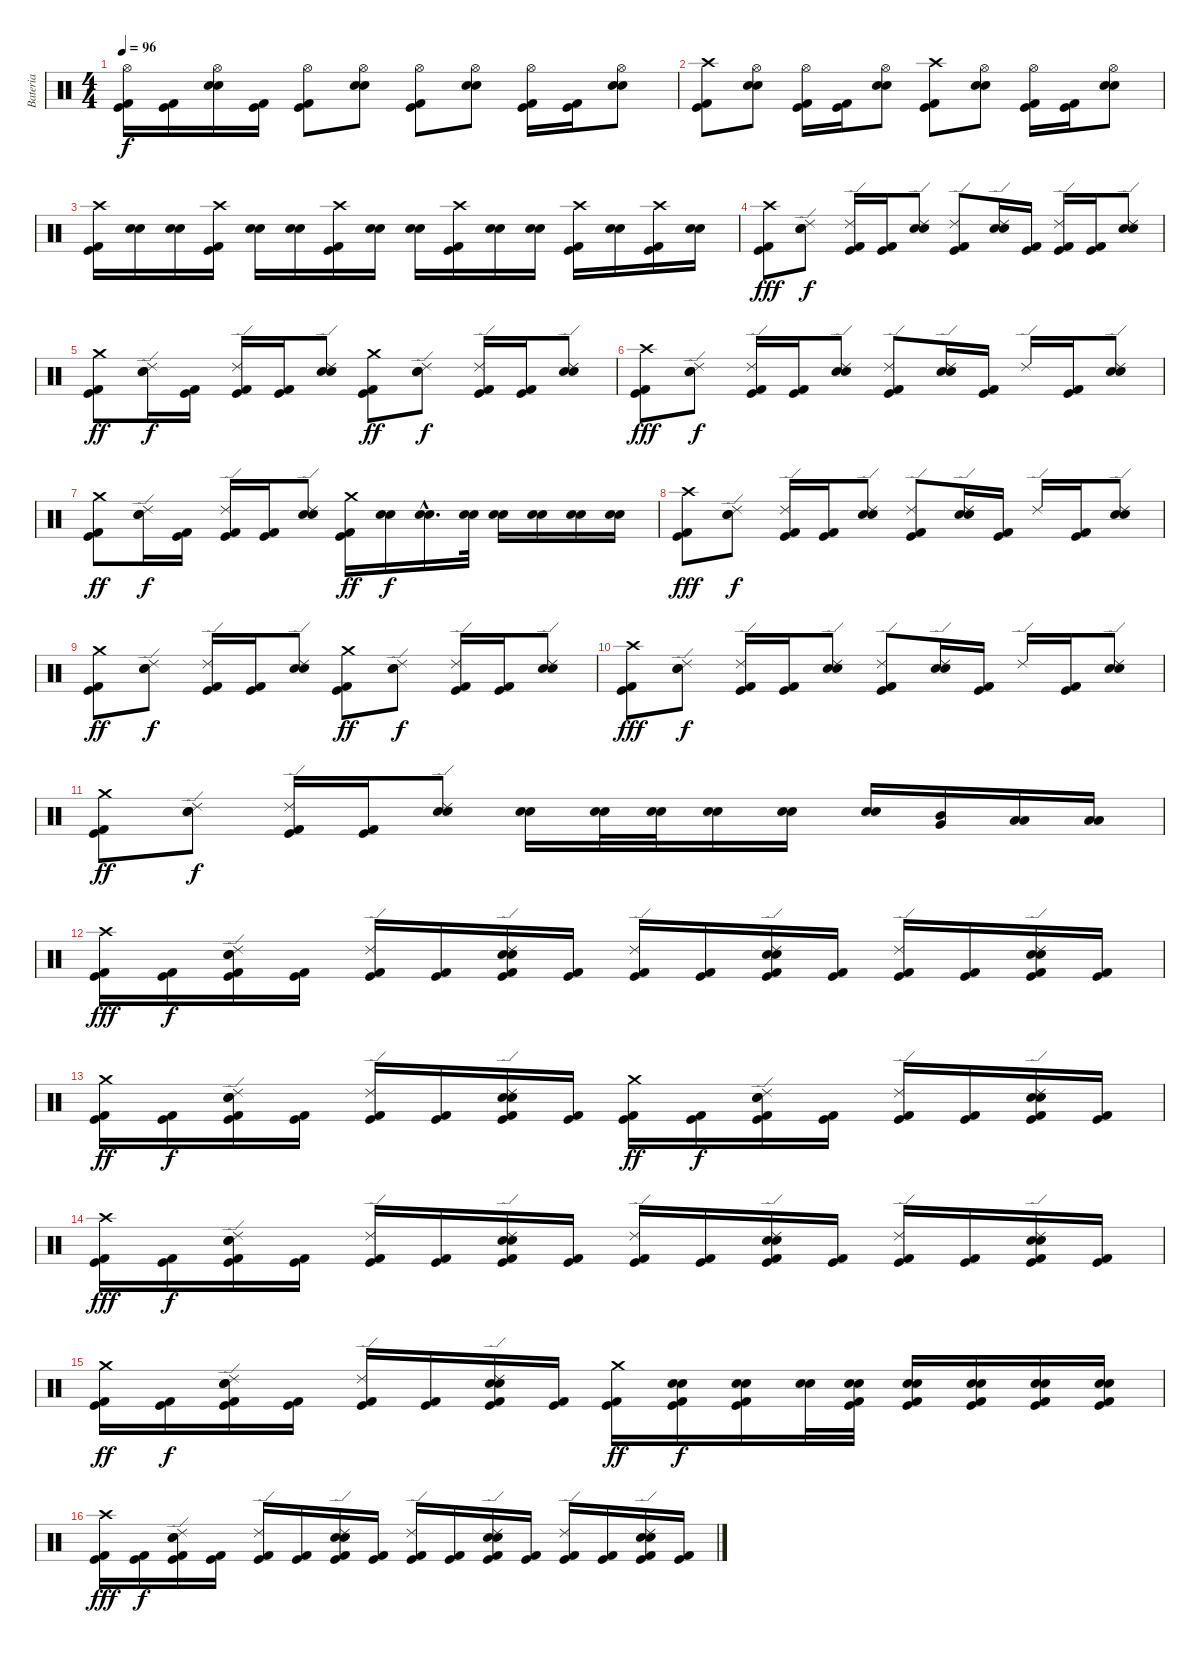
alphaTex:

\track ("Bateria" "Bateria") {instrument percussion}
\staff {score}
\articulation defaults
\ts (4 4)
\tempo 96
\clef neutral
\ks c
("Hi-Hat (open)" "Kick (hit) 2" "Kick (hit)").16{dy f} ("Kick (hit) 2" "Kick (hit)").16 ("Hi-Hat (open)" "Electric Snare (hit)" "Snare (hit) 2").16 ("Kick (hit) 2" "Kick (hit)").16 ("Hi-Hat (open)" "Kick (hit) 2" "Kick (hit)").8 ("Hi-Hat (open)" "Electric Snare (hit)" "Snare (hit) 2").8 ("Hi-Hat (open)" "Kick (hit) 2" "Kick (hit)").8 ("Hi-Hat (open)" "Electric Snare (hit)" "Snare (hit) 2").8 ("Hi-Hat (open)" "Kick (hit) 2" "Kick (hit)").16 ("Kick (hit) 2" "Kick (hit)").16 ("Hi-Hat (open)" "Electric Snare (hit)" "Snare (hit) 2").8 |
("Crash high (hit)" "Kick (hit) 2" "Kick (hit)").8 ("Hi-Hat (open)" "Electric Snare (hit)" "Snare (hit) 2").8 ("Hi-Hat (open)" "Kick (hit) 2" "Kick (hit)").16 ("Kick (hit) 2" "Kick (hit)").16 ("Hi-Hat (open)" "Electric Snare (hit)" "Snare (hit) 2").8 ("Crash high (hit)" "Kick (hit) 2" "Kick (hit)").8 ("Hi-Hat (open)" "Electric Snare (hit)" "Snare (hit) 2").8 ("Hi-Hat (open)" "Kick (hit) 2" "Kick (hit)").16 ("Kick (hit) 2" "Kick (hit)").16 ("Hi-Hat (open)" "Electric Snare (hit)" "Snare (hit) 2").8 |
("Crash high (hit)" "Kick (hit) 2" "Kick (hit)").16 ("Electric Snare (hit)" "Snare (hit) 2").16 ("Electric Snare (hit)" "Snare (hit) 2").16 ("Crash high (hit)" "Kick (hit) 2" "Kick (hit)").16 ("Electric Snare (hit)" "Snare (hit) 2").16 ("Electric Snare (hit)" "Snare (hit) 2").16 ("Crash high (hit)" "Kick (hit) 2" "Kick (hit)").16 ("Electric Snare (hit)" "Snare (hit) 2").16 ("Electric Snare (hit)" "Snare (hit) 2").16 ("Crash high (hit)" "Kick (hit) 2" "Kick (hit)").16 ("Electric Snare (hit)" "Snare (hit) 2").16 ("Electric Snare (hit)" "Snare (hit) 2").16 ("Crash high (hit)" "Kick (hit) 2" "Kick (hit)").16 ("Electric Snare (hit)" "Snare (hit) 2").16 ("Crash high (hit)" "Kick (hit) 2" "Kick (hit)").16 ("Electric Snare (hit)" "Snare (hit) 2").16 |
("Crash high (hit)" "Kick (hit) 2" "Kick (hit)").8{dy fff} ("Ride (edge) 2" "Electric Snare (hit)" "Snare (hit) 2").8{dy f} ("Ride (edge) 2" "Kick (hit) 2" "Kick (hit)").16 ("Kick (hit) 2" "Kick (hit)").16 ("Ride (edge) 2" "Electric Snare (hit)" "Snare (hit) 2").8 ("Ride (edge) 2" "Kick (hit) 2" "Kick (hit)").8 ("Ride (edge) 2" "Electric Snare (hit)" "Snare (hit) 2").16 ("Kick (hit) 2" "Kick (hit)").16 ("Ride (edge) 2" "Kick (hit) 2" "Kick (hit)").16 ("Kick (hit) 2" "Kick (hit)").16 ("Ride (edge) 2" "Electric Snare (hit)" "Snare (hit) 2").8 |
("Crash medium (hit)" "Kick (hit) 2" "Kick (hit)").8{dy ff} ("Ride (edge) 2" "Electric Snare (hit)" "Snare (hit) 2").16{dy f} ("Kick (hit) 2" "Kick (hit)").16 ("Ride (edge) 2" "Kick (hit) 2" "Kick (hit)").16 ("Kick (hit) 2" "Kick (hit)").16 ("Ride (edge) 2" "Electric Snare (hit)" "Snare (hit) 2").8 ("Crash medium (hit)" "Kick (hit) 2" "Kick (hit)").8{dy ff} ("Ride (edge) 2" "Electric Snare (hit)" "Snare (hit) 2").8{dy f} ("Ride (edge) 2" "Kick (hit) 2" "Kick (hit)").16 ("Kick (hit) 2" "Kick (hit)").16 ("Ride (edge) 2" "Electric Snare (hit)" "Snare (hit) 2").8 |
("Crash high (hit)" "Kick (hit) 2" "Kick (hit)").8{dy fff} ("Ride (edge) 2" "Electric Snare (hit)" "Snare (hit) 2").8{dy f} ("Ride (edge) 2" "Kick (hit) 2" "Kick (hit)").16 ("Kick (hit) 2" "Kick (hit)").16 ("Ride (edge) 2" "Electric Snare (hit)" "Snare (hit) 2").8 ("Ride (edge) 2" "Kick (hit) 2" "Kick (hit)").8 ("Ride (edge) 2" "Electric Snare (hit)" "Snare (hit) 2").16 ("Kick (hit) 2" "Kick (hit)").16 "Ride (edge) 2".16 ("Kick (hit) 2" "Kick (hit)").16 ("Ride (edge) 2" "Electric Snare (hit)" "Snare (hit) 2").8 |
("Crash medium (hit)" "Kick (hit) 2" "Kick (hit)").8{dy ff} ("Ride (edge) 2" "Electric Snare (hit)" "Snare (hit) 2").16{dy f} ("Kick (hit) 2" "Kick (hit)").16 ("Ride (edge) 2" "Kick (hit) 2" "Kick (hit)").16 ("Kick (hit) 2" "Kick (hit)").16 ("Ride (edge) 2" "Electric Snare (hit)" "Snare (hit) 2").8 ("Crash medium (hit)" "Kick (hit) 2" "Kick (hit)").16{dy ff} ("Electric Snare (hit)" "Snare (hit) 2").16{dy f} ("Electric Snare (hit)"{hac} "Snare (hit) 2"{hac}).16{d} ("Electric Snare (hit)" "Snare (hit) 2").32 ("Electric Snare (hit)" "Snare (hit) 2").16 ("Electric Snare (hit)" "Snare (hit) 2").16 ("Electric Snare (hit)" "Snare (hit) 2").16 ("Electric Snare (hit)" "Snare (hit) 2").16 |
("Crash high (hit)" "Kick (hit) 2" "Kick (hit)").8{dy fff} ("Ride (edge) 2" "Electric Snare (hit)" "Snare (hit) 2").8{dy f} ("Ride (edge) 2" "Kick (hit) 2" "Kick (hit)").16 ("Kick (hit) 2" "Kick (hit)").16 ("Ride (edge) 2" "Electric Snare (hit)" "Snare (hit) 2").8 ("Ride (edge) 2" "Kick (hit) 2" "Kick (hit)").8 ("Ride (edge) 2" "Electric Snare (hit)" "Snare (hit) 2").16 ("Kick (hit) 2" "Kick (hit)").16 "Ride (edge) 2".16 ("Kick (hit) 2" "Kick (hit)").16 ("Ride (edge) 2" "Electric Snare (hit)" "Snare (hit) 2").8 |
("Crash medium (hit)" "Kick (hit) 2" "Kick (hit)").8{dy ff} ("Ride (edge) 2" "Electric Snare (hit)" "Snare (hit) 2").8{dy f} ("Ride (edge) 2" "Kick (hit) 2" "Kick (hit)").16 ("Kick (hit) 2" "Kick (hit)").16 ("Ride (edge) 2" "Electric Snare (hit)" "Snare (hit) 2").8 ("Crash medium (hit)" "Kick (hit) 2" "Kick (hit)").8{dy ff} ("Ride (edge) 2" "Electric Snare (hit)" "Snare (hit) 2").8{dy f} ("Ride (edge) 2" "Kick (hit) 2" "Kick (hit)").16 ("Kick (hit) 2" "Kick (hit)").16 ("Ride (edge) 2" "Electric Snare (hit)" "Snare (hit) 2").8 |
("Crash high (hit)" "Kick (hit) 2" "Kick (hit)").8{dy fff} ("Ride (edge) 2" "Electric Snare (hit)" "Snare (hit) 2").8{dy f} ("Ride (edge) 2" "Kick (hit) 2" "Kick (hit)").16 ("Kick (hit) 2" "Kick (hit)").16 ("Ride (edge) 2" "Electric Snare (hit)" "Snare (hit) 2").8 ("Ride (edge) 2" "Kick (hit) 2" "Kick (hit)").8 ("Ride (edge) 2" "Electric Snare (hit)" "Snare (hit) 2").16 ("Kick (hit) 2" "Kick (hit)").16 "Ride (edge) 2".16 ("Kick (hit) 2" "Kick (hit)").16 ("Ride (edge) 2" "Electric Snare (hit)" "Snare (hit) 2").8 |
("Crash medium (hit)" "Kick (hit) 2" "Kick (hit)").8{dy ff} ("Ride (edge) 2" "Electric Snare (hit)" "Snare (hit) 2").8{dy f} ("Ride (edge) 2" "Kick (hit) 2" "Kick (hit)").16 ("Kick (hit) 2" "Kick (hit)").16 ("Ride (edge) 2" "Electric Snare (hit)" "Snare (hit) 2").8 ("Electric Snare (hit)" "Snare (hit) 2").16 ("Electric Snare (hit)" "Snare (hit) 2").32 ("Electric Snare (hit)" "Snare (hit) 2").32 ("Electric Snare (hit)" "Snare (hit) 2").16 ("Electric Snare (hit)" "Snare (hit) 2").16 ("Electric Snare (hit)" "Snare (hit) 2").16 ("Mid Tom (hit)" "Very Low Tom (hit)").16 ("Low Tom (hit)" "Low Floor Tom (hit)").16 ("Low Tom (hit)" "Low Floor Tom (hit)").16 |
("Crash high (hit)" "Kick (hit) 2" "Kick (hit)").16{dy fff} ("Kick (hit) 2" "Kick (hit)").16{dy f} ("Ride (edge) 2" "Electric Snare (hit)" "Snare (hit) 2" "Kick (hit) 2" "Kick (hit)").16 ("Kick (hit) 2" "Kick (hit)").16 ("Ride (edge) 2" "Kick (hit) 2" "Kick (hit)").16 ("Kick (hit) 2" "Kick (hit)").16 ("Ride (edge) 2" "Electric Snare (hit)" "Snare (hit) 2" "Kick (hit) 2" "Kick (hit)").16 ("Kick (hit) 2" "Kick (hit)").16 ("Ride (edge) 2" "Kick (hit) 2" "Kick (hit)").16 ("Kick (hit) 2" "Kick (hit)").16 ("Ride (edge) 2" "Electric Snare (hit)" "Snare (hit) 2" "Kick (hit) 2" "Kick (hit)").16 ("Kick (hit) 2" "Kick (hit)").16 ("Ride (edge) 2" "Kick (hit) 2" "Kick (hit)").16 ("Kick (hit) 2" "Kick (hit)").16 ("Ride (edge) 2" "Electric Snare (hit)" "Snare (hit) 2" "Kick (hit) 2" "Kick (hit)").16 ("Kick (hit) 2" "Kick (hit)").16 |
("Crash medium (hit)" "Kick (hit) 2" "Kick (hit)").16{dy ff} ("Kick (hit) 2" "Kick (hit)").16{dy f} ("Ride (edge) 2" "Electric Snare (hit)" "Snare (hit) 2" "Kick (hit) 2" "Kick (hit)").16 ("Kick (hit) 2" "Kick (hit)").16 ("Ride (edge) 2" "Kick (hit) 2" "Kick (hit)").16 ("Kick (hit) 2" "Kick (hit)").16 ("Ride (edge) 2" "Electric Snare (hit)" "Snare (hit) 2" "Kick (hit) 2" "Kick (hit)").16 ("Kick (hit) 2" "Kick (hit)").16 ("Crash medium (hit)" "Kick (hit) 2" "Kick (hit)").16{dy ff} ("Kick (hit) 2" "Kick (hit)").16{dy f} ("Ride (edge) 2" "Electric Snare (hit)" "Snare (hit) 2" "Kick (hit) 2" "Kick (hit)").16 ("Kick (hit) 2" "Kick (hit)").16 ("Ride (edge) 2" "Kick (hit) 2" "Kick (hit)").16 ("Kick (hit) 2" "Kick (hit)").16 ("Ride (edge) 2" "Electric Snare (hit)" "Snare (hit) 2" "Kick (hit) 2" "Kick (hit)").16 ("Kick (hit) 2" "Kick (hit)").16 |
("Crash high (hit)" "Kick (hit) 2" "Kick (hit)").16{dy fff} ("Kick (hit) 2" "Kick (hit)").16{dy f} ("Ride (edge) 2" "Electric Snare (hit)" "Snare (hit) 2" "Kick (hit) 2" "Kick (hit)").16 ("Kick (hit) 2" "Kick (hit)").16 ("Ride (edge) 2" "Kick (hit) 2" "Kick (hit)").16 ("Kick (hit) 2" "Kick (hit)").16 ("Ride (edge) 2" "Electric Snare (hit)" "Snare (hit) 2" "Kick (hit) 2" "Kick (hit)").16 ("Kick (hit) 2" "Kick (hit)").16 ("Ride (edge) 2" "Kick (hit) 2" "Kick (hit)").16 ("Kick (hit) 2" "Kick (hit)").16 ("Ride (edge) 2" "Electric Snare (hit)" "Snare (hit) 2" "Kick (hit) 2" "Kick (hit)").16 ("Kick (hit) 2" "Kick (hit)").16 ("Ride (edge) 2" "Kick (hit) 2" "Kick (hit)").16 ("Kick (hit) 2" "Kick (hit)").16 ("Ride (edge) 2" "Electric Snare (hit)" "Snare (hit) 2" "Kick (hit) 2" "Kick (hit)").16 ("Kick (hit) 2" "Kick (hit)").16 |
("Crash medium (hit)" "Kick (hit) 2" "Kick (hit)").16{dy ff} ("Kick (hit) 2" "Kick (hit)").16{dy f} ("Ride (edge) 2" "Electric Snare (hit)" "Snare (hit) 2" "Kick (hit) 2" "Kick (hit)").16 ("Kick (hit) 2" "Kick (hit)").16 ("Ride (edge) 2" "Kick (hit) 2" "Kick (hit)").16 ("Kick (hit) 2" "Kick (hit)").16 ("Ride (edge) 2" "Electric Snare (hit)" "Snare (hit) 2" "Kick (hit) 2" "Kick (hit)").16 ("Kick (hit) 2" "Kick (hit)").16 ("Crash medium (hit)" "Kick (hit) 2" "Kick (hit)").16{dy ff} ("Electric Snare (hit)" "Snare (hit) 2" "Kick (hit) 2" "Kick (hit)").16{dy f} ("Electric Snare (hit)" "Snare (hit) 2" "Kick (hit) 2" "Kick (hit)").16 ("Electric Snare (hit)" "Snare (hit) 2").32 ("Electric Snare (hit)" "Snare (hit) 2" "Kick (hit) 2" "Kick (hit)").32 ("Electric Snare (hit)" "Snare (hit) 2" "Kick (hit) 2" "Kick (hit)").16 ("Electric Snare (hit)" "Snare (hit) 2" "Kick (hit) 2" "Kick (hit)").16 ("Electric Snare (hit)" "Snare (hit) 2" "Kick (hit) 2" "Kick (hit)").16 ("Electric Snare (hit)" "Snare (hit) 2" "Kick (hit) 2" "Kick (hit)").16 |
("Crash high (hit)" "Kick (hit) 2" "Kick (hit)").16{dy fff} ("Kick (hit) 2" "Kick (hit)").16{dy f} ("Ride (edge) 2" "Electric Snare (hit)" "Snare (hit) 2" "Kick (hit) 2" "Kick (hit)").16 ("Kick (hit) 2" "Kick (hit)").16 ("Ride (edge) 2" "Kick (hit) 2" "Kick (hit)").16 ("Kick (hit) 2" "Kick (hit)").16 ("Ride (edge) 2" "Electric Snare (hit)" "Snare (hit) 2" "Kick (hit) 2" "Kick (hit)").16 ("Kick (hit) 2" "Kick (hit)").16 ("Ride (edge) 2" "Kick (hit) 2" "Kick (hit)").16 ("Kick (hit) 2" "Kick (hit)").16 ("Ride (edge) 2" "Electric Snare (hit)" "Snare (hit) 2" "Kick (hit) 2" "Kick (hit)").16 ("Kick (hit) 2" "Kick (hit)").16 ("Ride (edge) 2" "Kick (hit) 2" "Kick (hit)").16 ("Kick (hit) 2" "Kick (hit)").16 ("Ride (edge) 2" "Electric Snare (hit)" "Snare (hit) 2" "Kick (hit) 2" "Kick (hit)").16 ("Kick (hit) 2" "Kick (hit)").16
